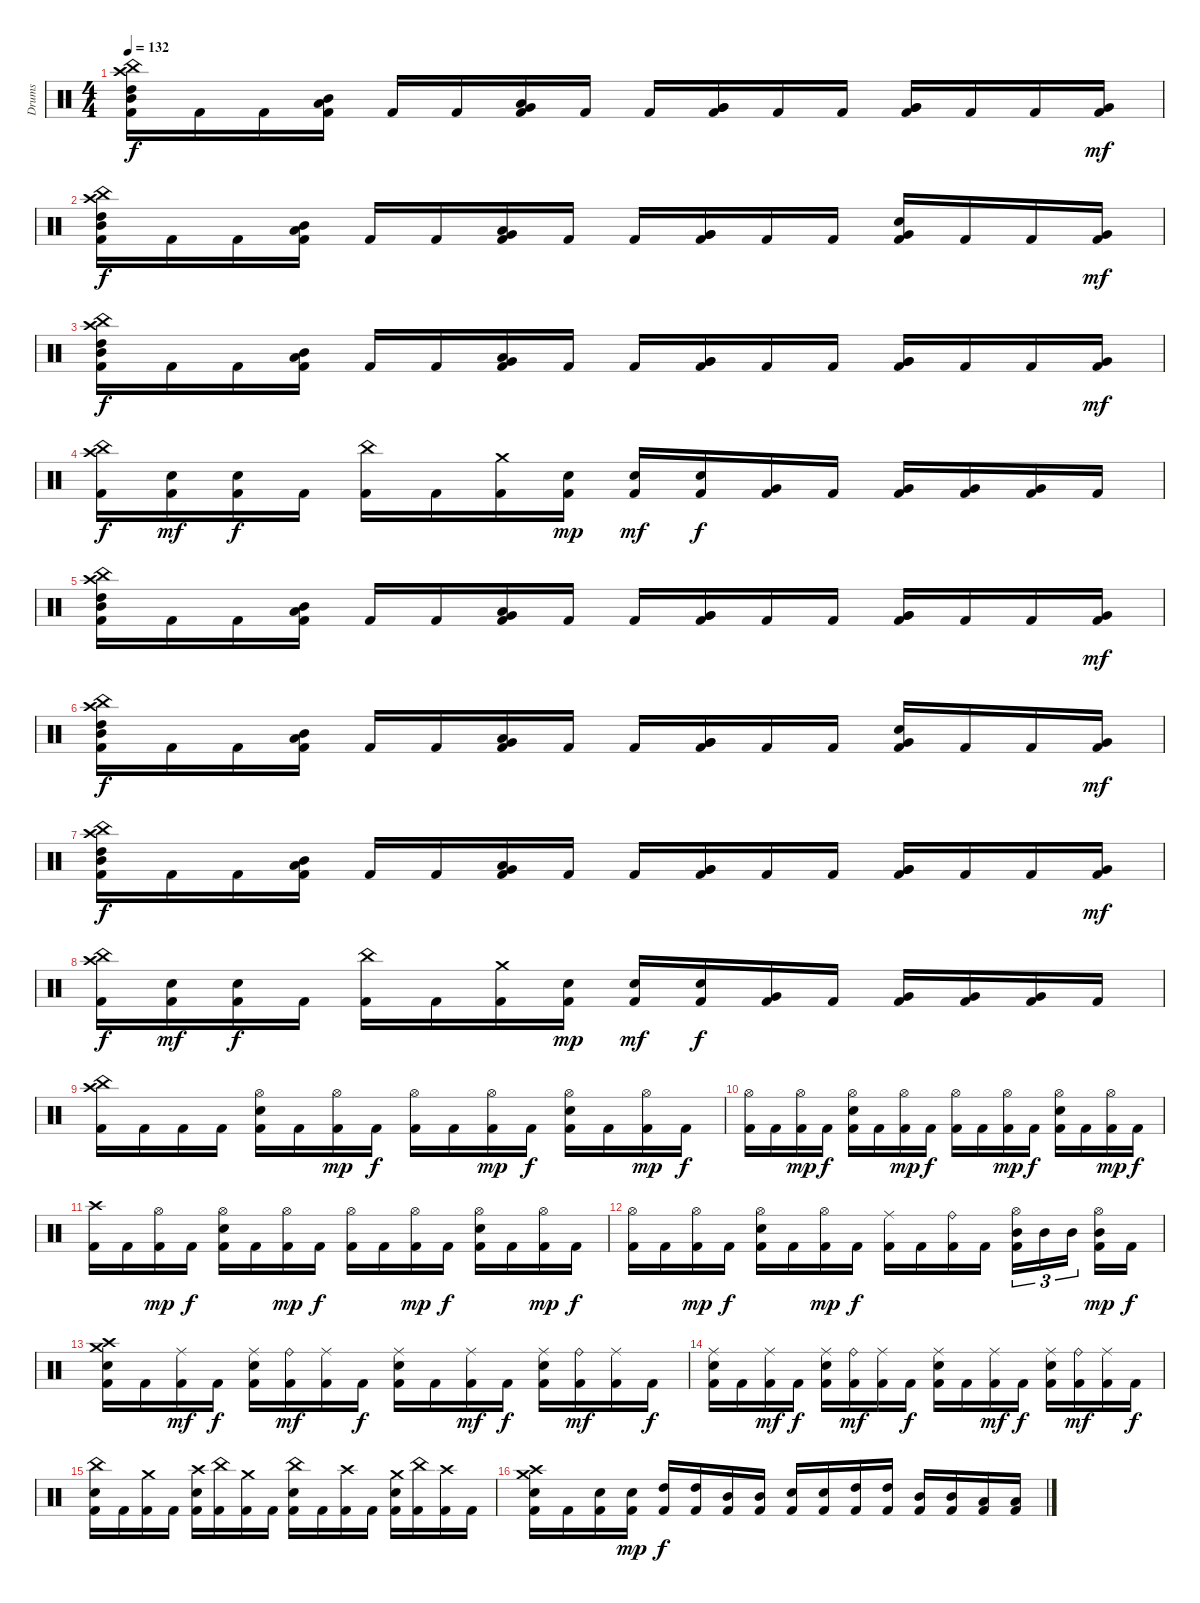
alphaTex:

\track ("Drums" "Drums") {instrument percussion}
\staff {score}
\articulation defaults
\ts (4 4)
\tempo 132
\clef neutral
\ks c
("Crash high (hit)" "China (hit)" "High Tom (hit)" "Mid Tom (hit)" "Kick (hit) 2").16{dy f} "Kick (hit) 2".16 "Kick (hit) 2".16 ("Mid Tom (hit)" "Low Tom (hit)" "Kick (hit) 2").16 "Kick (hit) 2".16 "Kick (hit) 2".16 ("Low Tom (hit)" "Very Low Tom (hit)" "Kick (hit) 2").16 "Kick (hit) 2".16 "Kick (hit) 2".16 ("Very Low Tom (hit)" "Very Low Tom (hit)" "Kick (hit) 2").16 "Kick (hit) 2".16 "Kick (hit) 2".16 ("Very Low Tom (hit)" "Very Low Tom (hit)" "Kick (hit) 2").16 "Kick (hit) 2".16 "Kick (hit) 2".16 ("Very Low Tom (hit)" "Kick (hit) 2").16{dy mf} |
("Crash high (hit)" "China (hit)" "High Tom (hit)" "Mid Tom (hit)" "Kick (hit) 2").16{dy f} "Kick (hit) 2".16 "Kick (hit) 2".16 ("Mid Tom (hit)" "Low Tom (hit)" "Kick (hit) 2").16 "Kick (hit) 2".16 "Kick (hit) 2".16 ("Low Tom (hit)" "Very Low Tom (hit)" "Kick (hit) 2").16 "Kick (hit) 2".16 "Kick (hit) 2".16 ("Very Low Tom (hit)" "Very Low Tom (hit)" "Kick (hit) 2").16 "Kick (hit) 2".16 "Kick (hit) 2".16 ("Very Low Tom (hit)" "Electric Snare (hit)" "Kick (hit) 2").16 "Kick (hit) 2".16 "Kick (hit) 2".16 ("Very Low Tom (hit)" "Kick (hit) 2").16{dy mf} |
("Crash high (hit)" "China (hit)" "High Tom (hit)" "Mid Tom (hit)" "Kick (hit) 2").16{dy f} "Kick (hit) 2".16 "Kick (hit) 2".16 ("Mid Tom (hit)" "Low Tom (hit)" "Kick (hit) 2").16 "Kick (hit) 2".16 "Kick (hit) 2".16 ("Low Tom (hit)" "Very Low Tom (hit)" "Kick (hit) 2").16 "Kick (hit) 2".16 "Kick (hit) 2".16 ("Very Low Tom (hit)" "Very Low Tom (hit)" "Kick (hit) 2").16 "Kick (hit) 2".16 "Kick (hit) 2".16 ("Very Low Tom (hit)" "Very Low Tom (hit)" "Kick (hit) 2").16 "Kick (hit) 2".16 "Kick (hit) 2".16 ("Very Low Tom (hit)" "Kick (hit) 2").16{dy mf} |
("Crash high (hit)" "China (hit)" "Kick (hit) 2").16{dy f} ("Electric Snare (hit)" "Kick (hit) 2").16{dy mf} ("Electric Snare (hit)" "Kick (hit) 2").16{dy f} "Kick (hit) 2".16 ("China (hit)" "Kick (hit) 2").16 "Kick (hit) 2".16 ("Crash medium (hit)" "Kick (hit) 2").16 ("Electric Snare (hit)" "Kick (hit) 2").16{dy mp} ("Electric Snare (hit)" "Kick (hit) 2").16{dy mf} ("Electric Snare (hit)" "Kick (hit) 2").16{dy f} ("Very Low Tom (hit)" "Kick (hit) 2").16 "Kick (hit) 2".16 ("Very Low Tom (hit)" "Kick (hit) 2").16 ("Very Low Tom (hit)" "Kick (hit) 2").16 ("Very Low Tom (hit)" "Kick (hit) 2").16 "Kick (hit) 2".16 |
("Crash high (hit)" "China (hit)" "High Tom (hit)" "Mid Tom (hit)" "Kick (hit) 2").16 "Kick (hit) 2".16 "Kick (hit) 2".16 ("Mid Tom (hit)" "Low Tom (hit)" "Kick (hit) 2").16 "Kick (hit) 2".16 "Kick (hit) 2".16 ("Low Tom (hit)" "Very Low Tom (hit)" "Kick (hit) 2").16 "Kick (hit) 2".16 "Kick (hit) 2".16 ("Very Low Tom (hit)" "Very Low Tom (hit)" "Kick (hit) 2").16 "Kick (hit) 2".16 "Kick (hit) 2".16 ("Very Low Tom (hit)" "Very Low Tom (hit)" "Kick (hit) 2").16 "Kick (hit) 2".16 "Kick (hit) 2".16 ("Very Low Tom (hit)" "Kick (hit) 2").16{dy mf} |
("Crash high (hit)" "China (hit)" "High Tom (hit)" "Mid Tom (hit)" "Kick (hit) 2").16{dy f} "Kick (hit) 2".16 "Kick (hit) 2".16 ("Mid Tom (hit)" "Low Tom (hit)" "Kick (hit) 2").16 "Kick (hit) 2".16 "Kick (hit) 2".16 ("Low Tom (hit)" "Very Low Tom (hit)" "Kick (hit) 2").16 "Kick (hit) 2".16 "Kick (hit) 2".16 ("Very Low Tom (hit)" "Very Low Tom (hit)" "Kick (hit) 2").16 "Kick (hit) 2".16 "Kick (hit) 2".16 ("Very Low Tom (hit)" "Electric Snare (hit)" "Kick (hit) 2").16 "Kick (hit) 2".16 "Kick (hit) 2".16 ("Very Low Tom (hit)" "Kick (hit) 2").16{dy mf} |
("Crash high (hit)" "China (hit)" "High Tom (hit)" "Mid Tom (hit)" "Kick (hit) 2").16{dy f} "Kick (hit) 2".16 "Kick (hit) 2".16 ("Mid Tom (hit)" "Low Tom (hit)" "Kick (hit) 2").16 "Kick (hit) 2".16 "Kick (hit) 2".16 ("Low Tom (hit)" "Very Low Tom (hit)" "Kick (hit) 2").16 "Kick (hit) 2".16 "Kick (hit) 2".16 ("Very Low Tom (hit)" "Very Low Tom (hit)" "Kick (hit) 2").16 "Kick (hit) 2".16 "Kick (hit) 2".16 ("Very Low Tom (hit)" "Very Low Tom (hit)" "Kick (hit) 2").16 "Kick (hit) 2".16 "Kick (hit) 2".16 ("Very Low Tom (hit)" "Kick (hit) 2").16{dy mf} |
("Crash high (hit)" "China (hit)" "Kick (hit) 2").16{dy f} ("Electric Snare (hit)" "Kick (hit) 2").16{dy mf} ("Electric Snare (hit)" "Kick (hit) 2").16{dy f} "Kick (hit) 2".16 ("China (hit)" "Kick (hit) 2").16 "Kick (hit) 2".16 ("Crash medium (hit)" "Kick (hit) 2").16 ("Electric Snare (hit)" "Kick (hit) 2").16{dy mp} ("Electric Snare (hit)" "Kick (hit) 2").16{dy mf} ("Electric Snare (hit)" "Kick (hit) 2").16{dy f} ("Very Low Tom (hit)" "Kick (hit) 2").16 "Kick (hit) 2".16 ("Very Low Tom (hit)" "Kick (hit) 2").16 ("Very Low Tom (hit)" "Kick (hit) 2").16 ("Very Low Tom (hit)" "Kick (hit) 2").16 "Kick (hit) 2".16 |
("Crash high (hit)" "China (hit)" "Kick (hit) 2").16 "Kick (hit) 2".16 "Kick (hit) 2".16 "Kick (hit) 2".16 ("Hi-Hat (open)" "Electric Snare (hit)" "Kick (hit) 2").16 "Kick (hit) 2".16 ("Hi-Hat (open)" "Kick (hit) 2").16{dy mp} "Kick (hit) 2".16{dy f} ("Hi-Hat (open)" "Kick (hit) 2").16 "Kick (hit) 2".16 ("Hi-Hat (open)" "Kick (hit) 2").16{dy mp} "Kick (hit) 2".16{dy f} ("Hi-Hat (open)" "Electric Snare (hit)" "Kick (hit) 2").16 "Kick (hit) 2".16 ("Hi-Hat (open)" "Kick (hit) 2").16{dy mp} "Kick (hit) 2".16{dy f} |
("Hi-Hat (open)" "Kick (hit) 2").16 "Kick (hit) 2".16 ("Hi-Hat (open)" "Kick (hit) 2").16{dy mp} "Kick (hit) 2".16{dy f} ("Hi-Hat (open)" "Electric Snare (hit)" "Kick (hit) 2").16 "Kick (hit) 2".16 ("Hi-Hat (open)" "Kick (hit) 2").16{dy mp} "Kick (hit) 2".16{dy f} ("Hi-Hat (open)" "Kick (hit) 2").16 "Kick (hit) 2".16 ("Hi-Hat (open)" "Kick (hit) 2").16{dy mp} "Kick (hit) 2".16{dy f} ("Hi-Hat (open)" "Electric Snare (hit)" "Kick (hit) 2").16 "Kick (hit) 2".16 ("Hi-Hat (open)" "Kick (hit) 2").16{dy mp} "Kick (hit) 2".16{dy f} |
("Crash high (hit)" "Kick (hit) 2").16 "Kick (hit) 2".16 ("Hi-Hat (open)" "Kick (hit) 2").16{dy mp} "Kick (hit) 2".16{dy f} ("Hi-Hat (open)" "Electric Snare (hit)" "Kick (hit) 2").16 "Kick (hit) 2".16 ("Hi-Hat (open)" "Kick (hit) 2").16{dy mp} "Kick (hit) 2".16{dy f} ("Hi-Hat (open)" "Kick (hit) 2").16 "Kick (hit) 2".16 ("Hi-Hat (open)" "Kick (hit) 2").16{dy mp} "Kick (hit) 2".16{dy f} ("Hi-Hat (open)" "Electric Snare (hit)" "Kick (hit) 2").16 "Kick (hit) 2".16 ("Hi-Hat (open)" "Kick (hit) 2").16{dy mp} "Kick (hit) 2".16{dy f} |
("Hi-Hat (open)" "Kick (hit) 2").16 "Kick (hit) 2".16 ("Hi-Hat (open)" "Kick (hit) 2").16{dy mp} "Kick (hit) 2".16{dy f} ("Hi-Hat (open)" "Electric Snare (hit)" "Kick (hit) 2").16 "Kick (hit) 2".16 ("Hi-Hat (open)" "Kick (hit) 2").16{dy mp} "Kick (hit) 2".16{dy f} ("Ride (middle)" "Kick (hit) 2").16 "Kick (hit) 2".16 ("Ride (bell)" "Kick (hit) 2").16 "Kick (hit) 2".16 ("Hi-Hat (open)" "Mid Tom (hit)" "Kick (hit) 2").16{tu (3 2)} "Mid Tom (hit)".16{tu (3 2)} "Mid Tom (hit)".16{tu (3 2) beam splitsecondary} ("Hi-Hat (open)" "Mid Tom (hit)" "Kick (hit) 2").16{dy mp} "Kick (hit) 2".16{dy f} |
("Crash high (hit)" "Crash medium (hit)" "Electric Snare (hit)" "Kick (hit) 2").16 "Kick (hit) 2".16 ("Ride (middle)" "Kick (hit) 2").16{dy mf} "Kick (hit) 2".16{dy f} ("Ride (middle)" "Electric Snare (hit)" "Kick (hit) 2").16 ("Ride (bell)" "Kick (hit) 2").16{dy mf} ("Ride (middle)" "Kick (hit) 2").16 "Kick (hit) 2".16{dy f} ("Ride (middle)" "Electric Snare (hit)" "Kick (hit) 2").16 "Kick (hit) 2".16 ("Ride (middle)" "Kick (hit) 2").16{dy mf} "Kick (hit) 2".16{dy f} ("Ride (middle)" "Electric Snare (hit)" "Kick (hit) 2").16 ("Ride (bell)" "Kick (hit) 2").16{dy mf} ("Ride (middle)" "Kick (hit) 2").16 "Kick (hit) 2".16{dy f} |
("Ride (middle)" "Electric Snare (hit)" "Kick (hit) 2").16 "Kick (hit) 2".16 ("Ride (middle)" "Kick (hit) 2").16{dy mf} "Kick (hit) 2".16{dy f} ("Ride (middle)" "Electric Snare (hit)" "Kick (hit) 2").16 ("Ride (bell)" "Kick (hit) 2").16{dy mf} ("Ride (middle)" "Kick (hit) 2").16 "Kick (hit) 2".16{dy f} ("Ride (middle)" "Electric Snare (hit)" "Kick (hit) 2").16 "Kick (hit) 2".16 ("Ride (middle)" "Kick (hit) 2").16{dy mf} "Kick (hit) 2".16{dy f} ("Ride (middle)" "Electric Snare (hit)" "Kick (hit) 2").16 ("Ride (bell)" "Kick (hit) 2").16{dy mf} ("Ride (middle)" "Kick (hit) 2").16 "Kick (hit) 2".16{dy f} |
("China (hit)" "Electric Snare (hit)" "Kick (hit) 2").16 "Kick (hit) 2".16 ("Crash medium (hit)" "Kick (hit) 2").16 "Kick (hit) 2".16 ("Crash high (hit)" "Electric Snare (hit)" "Kick (hit) 2").16 ("China (hit)" "Kick (hit) 2").16 ("Crash medium (hit)" "Kick (hit) 2").16 "Kick (hit) 2".16 ("China (hit)" "Electric Snare (hit)" "Kick (hit) 2").16 "Kick (hit) 2".16 ("Crash high (hit)" "Kick (hit) 2").16 "Kick (hit) 2".16 ("Crash medium (hit)" "Electric Snare (hit)" "Kick (hit) 2").16 ("China (hit)" "Kick (hit) 2").16 ("Crash high (hit)" "Kick (hit) 2").16 "Kick (hit) 2".16 |
("Crash high (hit)" "Crash medium (hit)" "Electric Snare (hit)" "Kick (hit) 2").16 "Kick (hit) 2".16 ("Electric Snare (hit)" "Kick (hit) 2").16 ("Electric Snare (hit)" "Kick (hit) 2").16{dy mp} ("High Tom (hit)" "Kick (hit) 2").16{dy f} ("High Tom (hit)" "Kick (hit) 2").16 ("Mid Tom (hit)" "Kick (hit) 2").16 ("Mid Tom (hit)" "Kick (hit) 2").16 ("Electric Snare (hit)" "Kick (hit) 2").16 ("Electric Snare (hit)" "Kick (hit) 2").16 ("High Tom (hit)" "Kick (hit) 2").16 ("High Tom (hit)" "Kick (hit) 2").16 ("Mid Tom (hit)" "Kick (hit) 2").16 ("Mid Tom (hit)" "Kick (hit) 2").16 ("Low Tom (hit)" "Kick (hit) 2").16 ("Low Tom (hit)" "Kick (hit) 2").16
